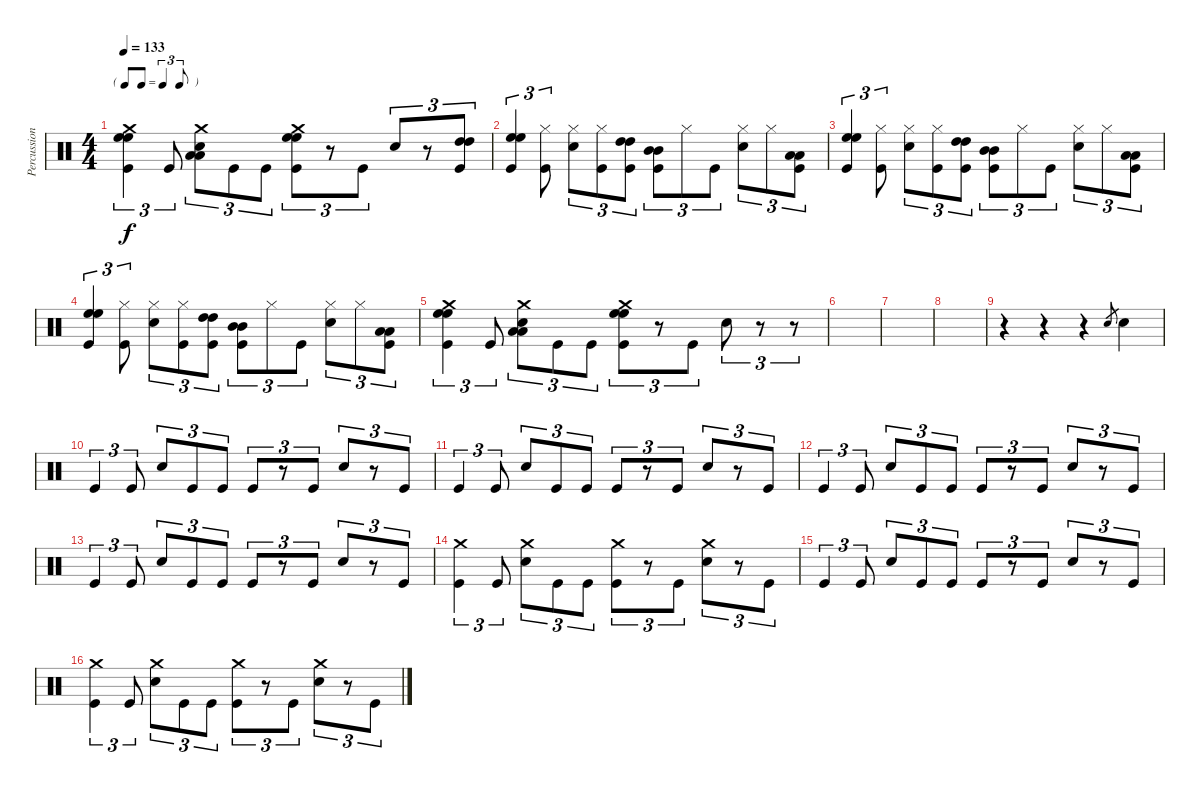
\track ("Percussion" "Percussion") {instrument percussion}
\staff {score}
\articulation defaults
\ts (4 4)
\tf triplet8th
\tempo 133
\clef neutral
\ks c
("Kick (hit)" "High Floor Tom (hit)" "High Floor Tom (hit)" "Crash medium (hit)").4{tu (3 2) dy f} "Kick (hit)".8{tu (3 2)} ("Snare (hit) 2" "Low Tom (hit)" "Low Tom (hit)" "Crash medium (hit)").8{tu (3 2)} "Kick (hit)".8{tu (3 2)} "Kick (hit)".8{tu (3 2)} ("Kick (hit)" "High Floor Tom (hit)" "High Floor Tom (hit)" "Crash medium (hit)").8{tu (3 2)} r.8{tu (3 2)} "Kick (hit)".8{tu (3 2)} "Snare (hit) 2".8{tu (3 2)} r.8{tu (3 2)} ("Kick (hit)" "High Tom (hit)" "High Tom (hit)").8{tu (3 2)} |
("Kick (hit)" "High Floor Tom (hit)" "High Floor Tom (hit)").4{tu (3 2)} ("Kick (hit)" "Hi-Hat (closed)").8{tu (3 2)} ("Snare (hit) 2" "Hi-Hat (closed)").8{tu (3 2)} ("Kick (hit)" "Hi-Hat (closed)").8{tu (3 2)} ("Kick (hit)" "High Tom (hit)" "High Tom (hit)").8{tu (3 2)} ("Kick (hit)" "Mid Tom (hit)" "Mid Tom (hit)").8{tu (3 2)} "Hi-Hat (closed)".8{tu (3 2)} "Kick (hit)".8{tu (3 2)} ("Snare (hit) 2" "Hi-Hat (closed)").8{tu (3 2)} "Hi-Hat (closed)".8{tu (3 2)} ("Kick (hit)" "Low Tom (hit)" "Low Tom (hit)").8{tu (3 2)} |
("Kick (hit)" "High Floor Tom (hit)" "High Floor Tom (hit)").4{tu (3 2)} ("Kick (hit)" "Hi-Hat (closed)").8{tu (3 2)} ("Snare (hit) 2" "Hi-Hat (closed)").8{tu (3 2)} ("Kick (hit)" "Hi-Hat (closed)").8{tu (3 2)} ("Kick (hit)" "High Tom (hit)" "High Tom (hit)").8{tu (3 2)} ("Kick (hit)" "Mid Tom (hit)" "Mid Tom (hit)").8{tu (3 2)} "Hi-Hat (closed)".8{tu (3 2)} "Kick (hit)".8{tu (3 2)} ("Snare (hit) 2" "Hi-Hat (closed)").8{tu (3 2)} "Hi-Hat (closed)".8{tu (3 2)} ("Kick (hit)" "Low Tom (hit)" "Low Tom (hit)").8{tu (3 2)} |
("Kick (hit)" "High Floor Tom (hit)" "High Floor Tom (hit)").4{tu (3 2)} ("Kick (hit)" "Hi-Hat (closed)").8{tu (3 2)} ("Snare (hit) 2" "Hi-Hat (closed)").8{tu (3 2)} ("Kick (hit)" "Hi-Hat (closed)").8{tu (3 2)} ("Kick (hit)" "High Tom (hit)" "High Tom (hit)").8{tu (3 2)} ("Kick (hit)" "Mid Tom (hit)" "Mid Tom (hit)").8{tu (3 2)} "Hi-Hat (closed)".8{tu (3 2)} "Kick (hit)".8{tu (3 2)} ("Snare (hit) 2" "Hi-Hat (closed)").8{tu (3 2)} "Hi-Hat (closed)".8{tu (3 2)} ("Kick (hit)" "Low Tom (hit)" "Low Tom (hit)").8{tu (3 2)} |
("Kick (hit)" "High Floor Tom (hit)" "High Floor Tom (hit)" "Crash medium (hit)").4{tu (3 2)} "Kick (hit)".8{tu (3 2)} ("Snare (hit) 2" "Low Tom (hit)" "Low Tom (hit)" "Crash medium (hit)").8{tu (3 2)} "Kick (hit)".8{tu (3 2)} "Kick (hit)".8{tu (3 2)} ("Kick (hit)" "High Floor Tom (hit)" "High Floor Tom (hit)" "Crash medium (hit)").8{tu (3 2)} r.8{tu (3 2)} "Kick (hit)".8{tu (3 2)} "Snare (hit) 2".8{tu (3 2)} r.8{tu (3 2)} r.8{tu (3 2)} |
|
|
|
r.4 r.4 r.4 "Electric Snare (hit)".8{gr} "Electric Snare (hit)".4 |
"Kick (hit)".4{tu (3 2)} "Kick (hit)".8{tu (3 2)} "Snare (hit) 2".8{tu (3 2)} "Kick (hit)".8{tu (3 2)} "Kick (hit)".8{tu (3 2)} "Kick (hit)".8{tu (3 2)} r.8{tu (3 2)} "Kick (hit)".8{tu (3 2)} "Snare (hit) 2".8{tu (3 2)} r.8{tu (3 2)} "Kick (hit)".8{tu (3 2)} |
"Kick (hit)".4{tu (3 2)} "Kick (hit)".8{tu (3 2)} "Snare (hit) 2".8{tu (3 2)} "Kick (hit)".8{tu (3 2)} "Kick (hit)".8{tu (3 2)} "Kick (hit)".8{tu (3 2)} r.8{tu (3 2)} "Kick (hit)".8{tu (3 2)} "Snare (hit) 2".8{tu (3 2)} r.8{tu (3 2)} "Kick (hit)".8{tu (3 2)} |
"Kick (hit)".4{tu (3 2)} "Kick (hit)".8{tu (3 2)} "Snare (hit) 2".8{tu (3 2)} "Kick (hit)".8{tu (3 2)} "Kick (hit)".8{tu (3 2)} "Kick (hit)".8{tu (3 2)} r.8{tu (3 2)} "Kick (hit)".8{tu (3 2)} "Snare (hit) 2".8{tu (3 2)} r.8{tu (3 2)} "Kick (hit)".8{tu (3 2)} |
"Kick (hit)".4{tu (3 2)} "Kick (hit)".8{tu (3 2)} "Snare (hit) 2".8{tu (3 2)} "Kick (hit)".8{tu (3 2)} "Kick (hit)".8{tu (3 2)} "Kick (hit)".8{tu (3 2)} r.8{tu (3 2)} "Kick (hit)".8{tu (3 2)} "Snare (hit) 2".8{tu (3 2)} r.8{tu (3 2)} "Kick (hit)".8{tu (3 2)} |
("Kick (hit)" "Crash medium (hit)").4{tu (3 2)} "Kick (hit)".8{tu (3 2)} ("Snare (hit) 2" "Crash medium (hit)").8{tu (3 2)} "Kick (hit)".8{tu (3 2)} "Kick (hit)".8{tu (3 2)} ("Kick (hit)" "Crash medium (hit)").8{tu (3 2)} r.8{tu (3 2)} "Kick (hit)".8{tu (3 2)} ("Snare (hit) 2" "Crash medium (hit)").8{tu (3 2)} r.8{tu (3 2)} "Kick (hit)".8{tu (3 2)} |
"Kick (hit)".4{tu (3 2)} "Kick (hit)".8{tu (3 2)} "Snare (hit) 2".8{tu (3 2)} "Kick (hit)".8{tu (3 2)} "Kick (hit)".8{tu (3 2)} "Kick (hit)".8{tu (3 2)} r.8{tu (3 2)} "Kick (hit)".8{tu (3 2)} "Snare (hit) 2".8{tu (3 2)} r.8{tu (3 2)} "Kick (hit)".8{tu (3 2)} |
("Kick (hit)" "Crash medium (hit)").4{tu (3 2)} "Kick (hit)".8{tu (3 2)} ("Snare (hit) 2" "Crash medium (hit)").8{tu (3 2)} "Kick (hit)".8{tu (3 2)} "Kick (hit)".8{tu (3 2)} ("Kick (hit)" "Crash medium (hit)").8{tu (3 2)} r.8{tu (3 2)} "Kick (hit)".8{tu (3 2)} ("Snare (hit) 2" "Crash medium (hit)").8{tu (3 2)} r.8{tu (3 2)} "Kick (hit)".8{tu (3 2)}
